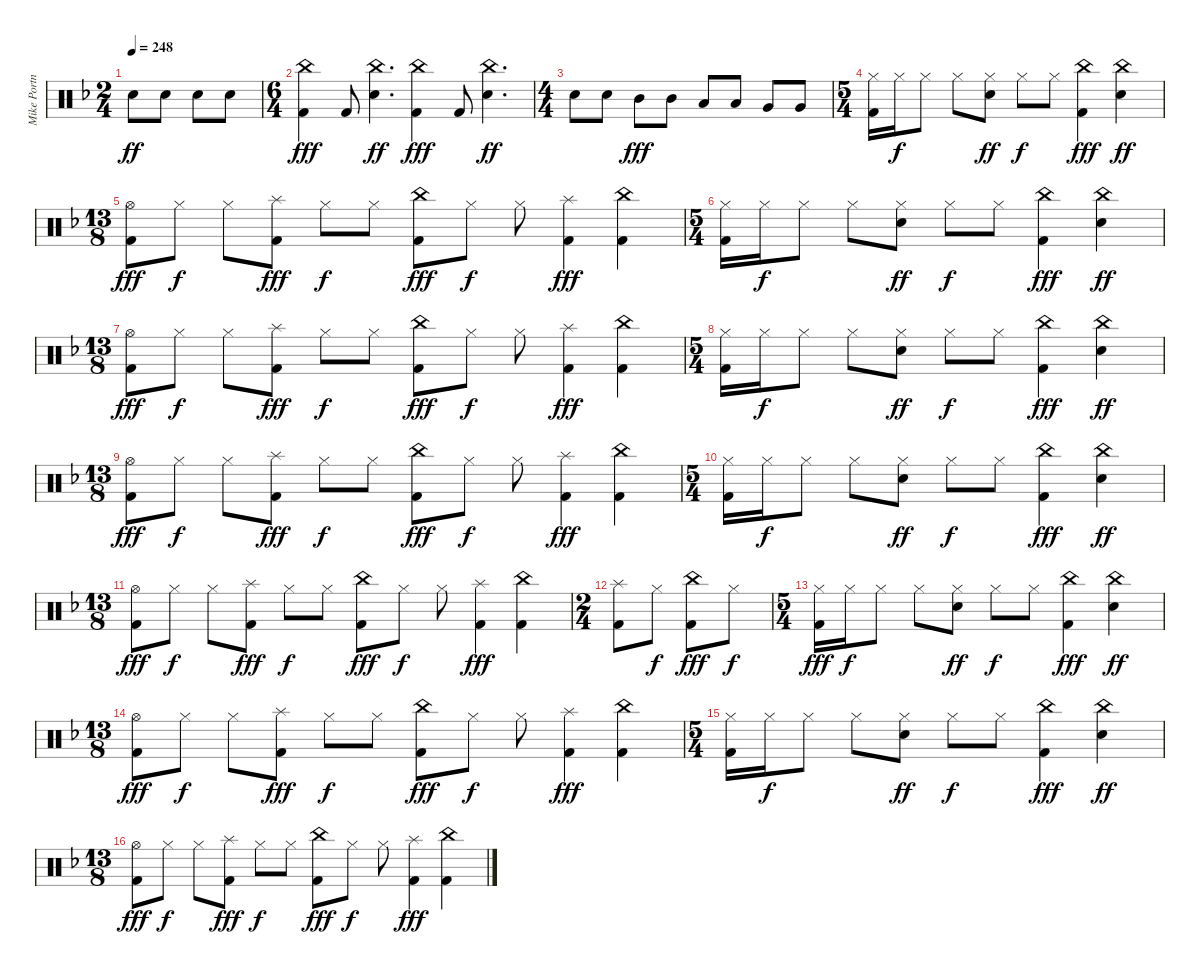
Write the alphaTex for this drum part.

\track ("Mike Portnoy Drums" "Mike Portn") {instrument percussion}
\staff {score}
\articulation defaults
\ts (2 4)
\tempo 248
\clef neutral
\ks dminor "Electric Snare (hit)".8{dy ff} "Electric Snare (hit)".8 "Electric Snare (hit)".8 "Electric Snare (hit)".8
|
\ts (6 4)
("China (hit)" "Kick (hit) 2").4{dy fff} "Kick (hit) 2".8 ("China (hit)" "Electric Snare (hit)").4{d dy ff} ("China (hit)" "Kick (hit) 2").4{dy fff} "Kick (hit) 2".8 ("China (hit)" "Electric Snare (hit)").4{d dy ff} |
\ts (4 4)
"Electric Snare (hit)".8 "Electric Snare (hit)".8 "Mid Tom (hit)".8{dy fff} "Mid Tom (hit)".8 "Low Tom (hit)".8 "Low Tom (hit)".8 "Very Low Tom (hit)".8 "Very Low Tom (hit)".8 |
\ts (5 4)
("Hi-Hat (closed)" "Kick (hit) 2").16 "Hi-Hat (closed)".16{dy f} "Hi-Hat (closed)".8 "Hi-Hat (closed)".8 ("Hi-Hat (closed)" "Electric Snare (hit)").8{dy ff} "Hi-Hat (closed)".8{dy f} "Hi-Hat (closed)".8 ("China (hit)" "Kick (hit) 2").4{dy fff} ("China (hit)" "Electric Snare (hit)").4{dy ff} |
\ts (13 8)
("Hi-Hat (open)" "Kick (hit) 2").8{dy fff} "Hi-Hat (closed)".8{dy f} "Hi-Hat (closed)".8 ("Splash (hit)" "Kick (hit) 2").8{dy fff} "Hi-Hat (closed)".8{dy f} "Hi-Hat (closed)".8 ("China (hit)" "Kick (hit) 2").8{dy fff} "Hi-Hat (closed)".8{dy f} "Hi-Hat (closed)".8 ("Splash (hit)" "Kick (hit) 2").4{dy fff} ("China (hit)" "Kick (hit) 2").4 |
\ts (5 4)
("Hi-Hat (closed)" "Kick (hit) 2").16 "Hi-Hat (closed)".16{dy f} "Hi-Hat (closed)".8 "Hi-Hat (closed)".8 ("Hi-Hat (closed)" "Electric Snare (hit)").8{dy ff} "Hi-Hat (closed)".8{dy f} "Hi-Hat (closed)".8 ("China (hit)" "Kick (hit) 2").4{dy fff} ("China (hit)" "Electric Snare (hit)").4{dy ff} |
\ts (13 8)
("Hi-Hat (open)" "Kick (hit) 2").8{dy fff} "Hi-Hat (closed)".8{dy f} "Hi-Hat (closed)".8 ("Splash (hit)" "Kick (hit) 2").8{dy fff} "Hi-Hat (closed)".8{dy f} "Hi-Hat (closed)".8 ("China (hit)" "Kick (hit) 2").8{dy fff} "Hi-Hat (closed)".8{dy f} "Hi-Hat (closed)".8 ("Splash (hit)" "Kick (hit) 2").4{dy fff} ("China (hit)" "Kick (hit) 2").4 |
\ts (5 4)
("Hi-Hat (closed)" "Kick (hit) 2").16 "Hi-Hat (closed)".16{dy f} "Hi-Hat (closed)".8 "Hi-Hat (closed)".8 ("Hi-Hat (closed)" "Electric Snare (hit)").8{dy ff} "Hi-Hat (closed)".8{dy f} "Hi-Hat (closed)".8 ("China (hit)" "Kick (hit) 2").4{dy fff} ("China (hit)" "Electric Snare (hit)").4{dy ff} |
\ts (13 8)
("Hi-Hat (open)" "Kick (hit) 2").8{dy fff} "Hi-Hat (closed)".8{dy f} "Hi-Hat (closed)".8 ("Splash (hit)" "Kick (hit) 2").8{dy fff} "Hi-Hat (closed)".8{dy f} "Hi-Hat (closed)".8 ("China (hit)" "Kick (hit) 2").8{dy fff} "Hi-Hat (closed)".8{dy f} "Hi-Hat (closed)".8 ("Splash (hit)" "Kick (hit) 2").4{dy fff} ("China (hit)" "Kick (hit) 2").4 |
\ts (5 4)
("Hi-Hat (closed)" "Kick (hit) 2").16 "Hi-Hat (closed)".16{dy f} "Hi-Hat (closed)".8 "Hi-Hat (closed)".8 ("Hi-Hat (closed)" "Electric Snare (hit)").8{dy ff} "Hi-Hat (closed)".8{dy f} "Hi-Hat (closed)".8 ("China (hit)" "Kick (hit) 2").4{dy fff} ("China (hit)" "Electric Snare (hit)").4{dy ff} |
\ts (13 8)
("Hi-Hat (open)" "Kick (hit) 2").8{dy fff} "Hi-Hat (closed)".8{dy f} "Hi-Hat (closed)".8 ("Splash (hit)" "Kick (hit) 2").8{dy fff} "Hi-Hat (closed)".8{dy f} "Hi-Hat (closed)".8 ("China (hit)" "Kick (hit) 2").8{dy fff} "Hi-Hat (closed)".8{dy f} "Hi-Hat (closed)".8 ("Splash (hit)" "Kick (hit) 2").4{dy fff} ("China (hit)" "Kick (hit) 2").4 |
\ts (2 4)
("Splash (hit)" "Kick (hit) 2").8 "Hi-Hat (closed)".8{dy f} ("China (hit)" "Kick (hit) 2").8{dy fff} "Hi-Hat (closed)".8{dy f} |
\ts (5 4)
("Hi-Hat (closed)" "Kick (hit) 2").16{dy fff} "Hi-Hat (closed)".16{dy f} "Hi-Hat (closed)".8 "Hi-Hat (closed)".8 ("Hi-Hat (closed)" "Electric Snare (hit)").8{dy ff} "Hi-Hat (closed)".8{dy f} "Hi-Hat (closed)".8 ("China (hit)" "Kick (hit) 2").4{dy fff} ("China (hit)" "Electric Snare (hit)").4{dy ff} |
\ts (13 8)
("Hi-Hat (open)" "Kick (hit) 2").8{dy fff} "Hi-Hat (closed)".8{dy f} "Hi-Hat (closed)".8 ("Splash (hit)" "Kick (hit) 2").8{dy fff} "Hi-Hat (closed)".8{dy f} "Hi-Hat (closed)".8 ("China (hit)" "Kick (hit) 2").8{dy fff} "Hi-Hat (closed)".8{dy f} "Hi-Hat (closed)".8 ("Splash (hit)" "Kick (hit) 2").4{dy fff} ("China (hit)" "Kick (hit) 2").4 |
\ts (5 4)
("Hi-Hat (closed)" "Kick (hit) 2").16 "Hi-Hat (closed)".16{dy f} "Hi-Hat (closed)".8 "Hi-Hat (closed)".8 ("Hi-Hat (closed)" "Electric Snare (hit)").8{dy ff} "Hi-Hat (closed)".8{dy f} "Hi-Hat (closed)".8 ("China (hit)" "Kick (hit) 2").4{dy fff} ("China (hit)" "Electric Snare (hit)").4{dy ff} |
\ts (13 8)
("Hi-Hat (open)" "Kick (hit) 2").8{dy fff} "Hi-Hat (closed)".8{dy f} "Hi-Hat (closed)".8 ("Splash (hit)" "Kick (hit) 2").8{dy fff} "Hi-Hat (closed)".8{dy f} "Hi-Hat (closed)".8 ("China (hit)" "Kick (hit) 2").8{dy fff} "Hi-Hat (closed)".8{dy f} "Hi-Hat (closed)".8 ("Splash (hit)" "Kick (hit) 2").4{dy fff} ("China (hit)" "Kick (hit) 2").4
